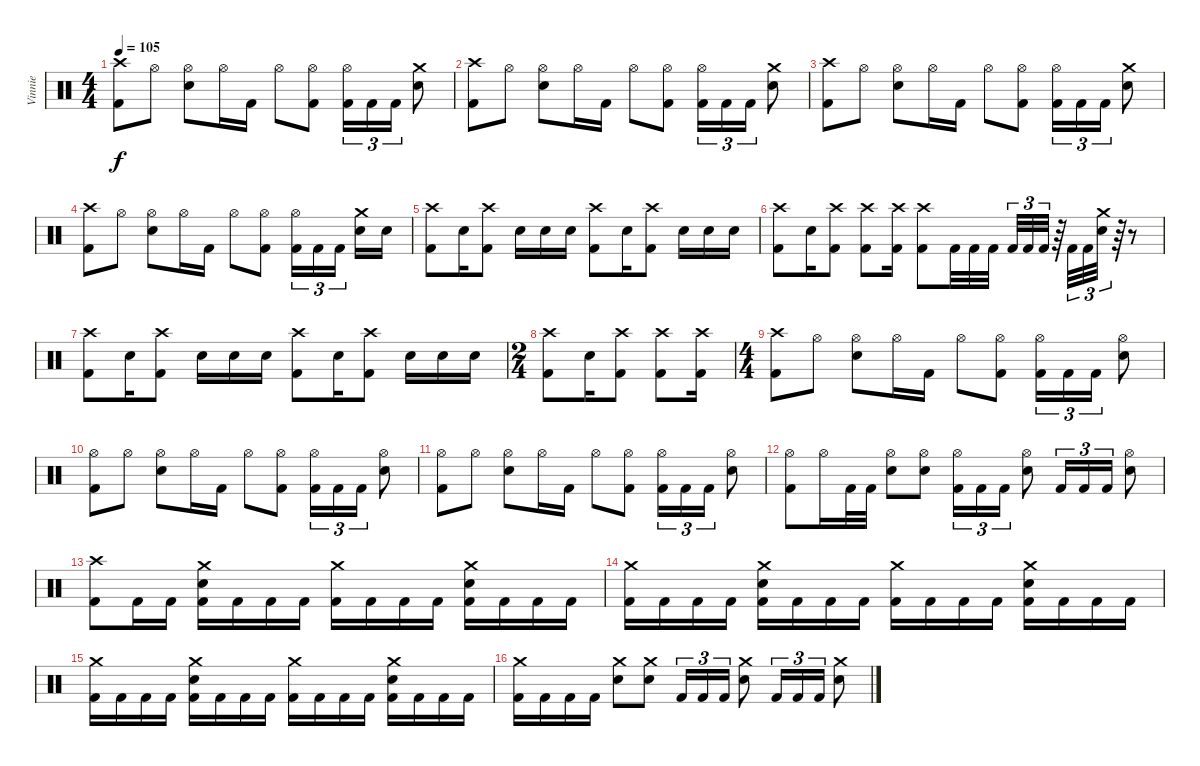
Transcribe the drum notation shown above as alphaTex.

\track ("Vinnie" "Vinnie") {instrument percussion}
\staff {score}
\articulation defaults
\ts (4 4)
\tempo 105
\clef neutral
\ks c
("Crash high (hit)" "Kick (hit) 2").8{dy f} "Hi-Hat (open)".8 ("Hi-Hat (open)" "Electric Snare (hit)").8 "Hi-Hat (open)".16 "Kick (hit) 2".16 "Hi-Hat (open)".8 ("Hi-Hat (open)" "Kick (hit) 2").8 ("Hi-Hat (open)" "Kick (hit) 2").16{tu (3 2)} "Kick (hit) 2".16{tu (3 2)} "Kick (hit) 2".16{tu (3 2)} ("Crash medium (hit)" "Electric Snare (hit)").8 |
("Crash high (hit)" "Kick (hit) 2").8 "Hi-Hat (open)".8 ("Hi-Hat (open)" "Electric Snare (hit)").8 "Hi-Hat (open)".16 "Kick (hit) 2".16 "Hi-Hat (open)".8 ("Hi-Hat (open)" "Kick (hit) 2").8 ("Hi-Hat (open)" "Kick (hit) 2").16{tu (3 2)} "Kick (hit) 2".16{tu (3 2)} "Kick (hit) 2".16{tu (3 2)} ("Crash medium (hit)" "Electric Snare (hit)").8 |
("Crash high (hit)" "Kick (hit) 2").8 "Hi-Hat (open)".8 ("Hi-Hat (open)" "Electric Snare (hit)").8 "Hi-Hat (open)".16 "Kick (hit) 2".16 "Hi-Hat (open)".8 ("Hi-Hat (open)" "Kick (hit) 2").8 ("Hi-Hat (open)" "Kick (hit) 2").16{tu (3 2)} "Kick (hit) 2".16{tu (3 2)} "Kick (hit) 2".16{tu (3 2)} ("Crash medium (hit)" "Electric Snare (hit)").8 |
("Crash high (hit)" "Kick (hit) 2").8 "Hi-Hat (open)".8 ("Hi-Hat (open)" "Electric Snare (hit)").8 "Hi-Hat (open)".16 "Kick (hit) 2".16 "Hi-Hat (open)".8 ("Hi-Hat (open)" "Kick (hit) 2").8 ("Hi-Hat (open)" "Kick (hit) 2").16{tu (3 2)} "Kick (hit) 2".16{tu (3 2)} "Kick (hit) 2".16{tu (3 2)} ("Crash medium (hit)" "Electric Snare (hit)").16 "Electric Snare (hit)".16 |
("Crash high (hit)" "Kick (hit) 2").8 "Electric Snare (hit)".16 ("Crash high (hit)" "Kick (hit) 2").8 "Electric Snare (hit)".16 "Electric Snare (hit)".16 "Electric Snare (hit)".16 ("Crash high (hit)" "Kick (hit) 2").8 "Electric Snare (hit)".16 ("Crash high (hit)" "Kick (hit) 2").8 "Electric Snare (hit)".16 "Electric Snare (hit)".16 "Electric Snare (hit)".16 |
("Crash high (hit)" "Kick (hit) 2").8 "Electric Snare (hit)".16 ("Crash high (hit)" "Kick (hit) 2").8 ("Crash high (hit)" "Kick (hit) 2").8 ("Crash high (hit)" "Kick (hit) 2").16 ("Crash high (hit)" "Kick (hit) 2").8 "Kick (hit) 2".32 "Kick (hit) 2".32 "Kick (hit) 2".32 "Kick (hit) 2".32{tu (3 2)} "Kick (hit) 2".32{tu (3 2)} "Kick (hit) 2".32{tu (3 2)} r.64 "Kick (hit) 2".32{tu (3 2)} "Kick (hit) 2".32{tu (3 2)} ("Crash medium (hit)" "Electric Snare (hit)").32{tu (3 2)} r.64 r.8 |
("Crash high (hit)" "Kick (hit) 2").8 "Electric Snare (hit)".16 ("Crash high (hit)" "Kick (hit) 2").8 "Electric Snare (hit)".16 "Electric Snare (hit)".16 "Electric Snare (hit)".16 ("Crash high (hit)" "Kick (hit) 2").8 "Electric Snare (hit)".16 ("Crash high (hit)" "Kick (hit) 2").8 "Electric Snare (hit)".16 "Electric Snare (hit)".16 "Electric Snare (hit)".16 |
\ts (2 4)
("Crash high (hit)" "Kick (hit) 2").8 "Electric Snare (hit)".16 ("Crash high (hit)" "Kick (hit) 2").8 ("Crash high (hit)" "Kick (hit) 2").8 ("Crash high (hit)" "Kick (hit) 2").16 |
\ts (4 4)
("Crash high (hit)" "Kick (hit) 2").8 "Hi-Hat (open)".8 ("Hi-Hat (open)" "Electric Snare (hit)").8 "Hi-Hat (open)".16 "Kick (hit) 2".16 "Hi-Hat (open)".8 ("Hi-Hat (open)" "Kick (hit) 2").8 ("Hi-Hat (open)" "Kick (hit) 2").16{tu (3 2)} "Kick (hit) 2".16{tu (3 2)} "Kick (hit) 2".16{tu (3 2)} ("Hi-Hat (open)" "Electric Snare (hit)").8 |
("Hi-Hat (open)" "Kick (hit) 2").8 "Hi-Hat (open)".8 ("Hi-Hat (open)" "Electric Snare (hit)").8 "Hi-Hat (open)".16 "Kick (hit) 2".16 "Hi-Hat (open)".8 ("Hi-Hat (open)" "Kick (hit) 2").8 ("Hi-Hat (open)" "Kick (hit) 2").16{tu (3 2)} "Kick (hit) 2".16{tu (3 2)} "Kick (hit) 2".16{tu (3 2)} ("Hi-Hat (open)" "Electric Snare (hit)").8 |
("Hi-Hat (open)" "Kick (hit) 2").8 "Hi-Hat (open)".8 ("Hi-Hat (open)" "Electric Snare (hit)").8 "Hi-Hat (open)".16 "Kick (hit) 2".16 "Hi-Hat (open)".8 ("Hi-Hat (open)" "Kick (hit) 2").8 ("Hi-Hat (open)" "Kick (hit) 2").16{tu (3 2)} "Kick (hit) 2".16{tu (3 2)} "Kick (hit) 2".16{tu (3 2)} ("Hi-Hat (open)" "Electric Snare (hit)").8 |
("Hi-Hat (open)" "Kick (hit) 2").8 "Hi-Hat (open)".16 "Kick (hit) 2".32 "Kick (hit) 2".32 ("Hi-Hat (open)" "Electric Snare (hit)").8 ("Hi-Hat (open)" "Electric Snare (hit)").8 ("Hi-Hat (open)" "Kick (hit) 2").16{tu (3 2)} "Kick (hit) 2".16{tu (3 2)} "Kick (hit) 2".16{tu (3 2)} ("Hi-Hat (open)" "Electric Snare (hit)").8 "Kick (hit) 2".16{tu (3 2)} "Kick (hit) 2".16{tu (3 2)} "Kick (hit) 2".16{tu (3 2)} ("Hi-Hat (open)" "Electric Snare (hit)").8 |
("Crash high (hit)" "Kick (hit) 2").8 "Kick (hit) 2".16 "Kick (hit) 2".16 ("Crash medium (hit)" "Electric Snare (hit)" "Kick (hit) 2").16 "Kick (hit) 2".16 "Kick (hit) 2".16 "Kick (hit) 2".16 ("Crash medium (hit)" "Kick (hit) 2").16 "Kick (hit) 2".16 "Kick (hit) 2".16 "Kick (hit) 2".16 ("Crash medium (hit)" "Electric Snare (hit)" "Kick (hit) 2").16 "Kick (hit) 2".16 "Kick (hit) 2".16 "Kick (hit) 2".16 |
("Crash medium (hit)" "Kick (hit) 2").16 "Kick (hit) 2".16 "Kick (hit) 2".16 "Kick (hit) 2".16 ("Crash medium (hit)" "Electric Snare (hit)" "Kick (hit) 2").16 "Kick (hit) 2".16 "Kick (hit) 2".16 "Kick (hit) 2".16 ("Crash medium (hit)" "Kick (hit) 2").16 "Kick (hit) 2".16 "Kick (hit) 2".16 "Kick (hit) 2".16 ("Crash medium (hit)" "Electric Snare (hit)" "Kick (hit) 2").16 "Kick (hit) 2".16 "Kick (hit) 2".16 "Kick (hit) 2".16 |
("Crash medium (hit)" "Kick (hit) 2").16 "Kick (hit) 2".16 "Kick (hit) 2".16 "Kick (hit) 2".16 ("Crash medium (hit)" "Electric Snare (hit)" "Kick (hit) 2").16 "Kick (hit) 2".16 "Kick (hit) 2".16 "Kick (hit) 2".16 ("Crash medium (hit)" "Kick (hit) 2").16 "Kick (hit) 2".16 "Kick (hit) 2".16 "Kick (hit) 2".16 ("Crash medium (hit)" "Electric Snare (hit)" "Kick (hit) 2").16 "Kick (hit) 2".16 "Kick (hit) 2".16 "Kick (hit) 2".16 |
("Crash medium (hit)" "Kick (hit) 2").16 "Kick (hit) 2".16 "Kick (hit) 2".16 "Kick (hit) 2".16 ("Crash medium (hit)" "Electric Snare (hit)").8 ("Crash medium (hit)" "Electric Snare (hit)").8 "Kick (hit) 2".16{tu (3 2)} "Kick (hit) 2".16{tu (3 2)} "Kick (hit) 2".16{tu (3 2)} ("Crash medium (hit)" "Electric Snare (hit)").8 "Kick (hit) 2".16{tu (3 2)} "Kick (hit) 2".16{tu (3 2)} "Kick (hit) 2".16{tu (3 2)} ("Crash medium (hit)" "Electric Snare (hit)").8
